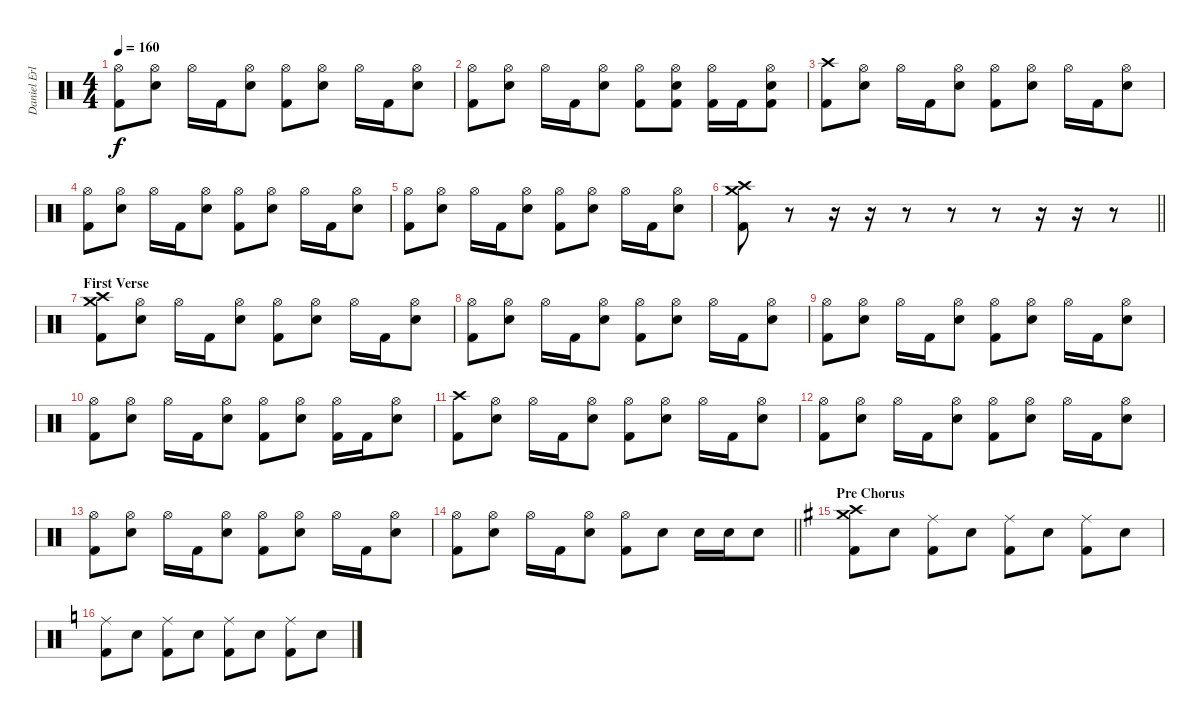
\track ("Daniel Erlandsson" "Daniel Erl") {instrument percussion}
\staff {score}
\articulation defaults
\ts (4 4)
\tempo 160
\clef neutral
\ks c
("Hi-Hat (open)" "Kick (hit) 2").8{dy f} ("Hi-Hat (open)" "Electric Snare (hit)").8 "Hi-Hat (open)".16 "Kick (hit) 2".16 ("Hi-Hat (open)" "Electric Snare (hit)").8 ("Hi-Hat (open)" "Kick (hit) 2").8 ("Hi-Hat (open)" "Electric Snare (hit)").8 "Hi-Hat (open)".16 "Kick (hit) 2".16 ("Hi-Hat (open)" "Electric Snare (hit)").8 |
("Hi-Hat (open)" "Kick (hit) 2").8 ("Hi-Hat (open)" "Electric Snare (hit)").8 "Hi-Hat (open)".16 "Kick (hit) 2".16 ("Hi-Hat (open)" "Electric Snare (hit)").8 ("Hi-Hat (open)" "Kick (hit) 2").8 ("Hi-Hat (open)" "Electric Snare (hit)" "Kick (hit) 2").8 ("Hi-Hat (open)" "Kick (hit) 2").16 "Kick (hit) 2".16 ("Hi-Hat (open)" "Electric Snare (hit)" "Kick (hit) 2").8 |
("Crash high (hit)" "Kick (hit) 2").8 ("Hi-Hat (open)" "Electric Snare (hit)").8 "Hi-Hat (open)".16 "Kick (hit) 2".16 ("Hi-Hat (open)" "Electric Snare (hit)").8 ("Hi-Hat (open)" "Kick (hit) 2").8 ("Hi-Hat (open)" "Electric Snare (hit)").8 "Hi-Hat (open)".16 "Kick (hit) 2".16 ("Hi-Hat (open)" "Electric Snare (hit)").8 |
("Hi-Hat (open)" "Kick (hit) 2").8 ("Hi-Hat (open)" "Electric Snare (hit)").8 "Hi-Hat (open)".16 "Kick (hit) 2".16 ("Hi-Hat (open)" "Electric Snare (hit)").8 ("Hi-Hat (open)" "Kick (hit) 2").8 ("Hi-Hat (open)" "Electric Snare (hit)").8 "Hi-Hat (open)".16 "Kick (hit) 2".16 ("Hi-Hat (open)" "Electric Snare (hit)").8 |
("Hi-Hat (open)" "Kick (hit) 2").8 ("Hi-Hat (open)" "Electric Snare (hit)").8 "Hi-Hat (open)".16 "Kick (hit) 2".16 ("Hi-Hat (open)" "Electric Snare (hit)").8 ("Hi-Hat (open)" "Kick (hit) 2").8 ("Hi-Hat (open)" "Electric Snare (hit)").8 "Hi-Hat (open)".16 "Kick (hit) 2".16 ("Hi-Hat (open)" "Electric Snare (hit)").8 |
\barLineRight lightlight
("Crash medium (hit)" "Crash high (hit)" "Kick (hit) 2").8 r.8 r.16 r.16 r.8 r.8 r.8 r.16 r.16 r.8 |
\section ("" "First Verse")
("Crash medium (hit)" "Crash high (hit)" "Kick (hit) 2").8 ("Hi-Hat (open)" "Electric Snare (hit)").8 "Hi-Hat (open)".16 "Kick (hit) 2".16 ("Hi-Hat (open)" "Electric Snare (hit)").8 ("Hi-Hat (open)" "Kick (hit) 2").8 ("Hi-Hat (open)" "Electric Snare (hit)").8 "Hi-Hat (open)".16 "Kick (hit) 2".16 ("Hi-Hat (open)" "Electric Snare (hit)").8 |
("Hi-Hat (open)" "Kick (hit) 2").8 ("Hi-Hat (open)" "Electric Snare (hit)").8 "Hi-Hat (open)".16 "Kick (hit) 2".16 ("Hi-Hat (open)" "Electric Snare (hit)").8 ("Hi-Hat (open)" "Kick (hit) 2").8 ("Hi-Hat (open)" "Electric Snare (hit)").8 "Hi-Hat (open)".16 "Kick (hit) 2".16 ("Hi-Hat (open)" "Electric Snare (hit)").8 |
("Hi-Hat (open)" "Kick (hit) 2").8 ("Hi-Hat (open)" "Electric Snare (hit)").8 "Hi-Hat (open)".16 "Kick (hit) 2".16 ("Hi-Hat (open)" "Electric Snare (hit)").8 ("Hi-Hat (open)" "Kick (hit) 2").8 ("Hi-Hat (open)" "Electric Snare (hit)").8 "Hi-Hat (open)".16 "Kick (hit) 2".16 ("Hi-Hat (open)" "Electric Snare (hit)").8 |
("Hi-Hat (open)" "Kick (hit) 2").8 ("Hi-Hat (open)" "Electric Snare (hit)").8 "Hi-Hat (open)".16 "Kick (hit) 2".16 ("Hi-Hat (open)" "Electric Snare (hit)").8 ("Hi-Hat (open)" "Kick (hit) 2").8 ("Hi-Hat (open)" "Electric Snare (hit)").8 ("Hi-Hat (open)" "Kick (hit) 2").16 "Kick (hit) 2".16 ("Hi-Hat (open)" "Electric Snare (hit)").8 |
("Crash high (hit)" "Kick (hit) 2").8 ("Hi-Hat (open)" "Electric Snare (hit)").8 "Hi-Hat (open)".16 "Kick (hit) 2".16 ("Hi-Hat (open)" "Electric Snare (hit)").8 ("Hi-Hat (open)" "Kick (hit) 2").8 ("Hi-Hat (open)" "Electric Snare (hit)").8 "Hi-Hat (open)".16 "Kick (hit) 2".16 ("Hi-Hat (open)" "Electric Snare (hit)").8 |
("Hi-Hat (open)" "Kick (hit) 2").8 ("Hi-Hat (open)" "Electric Snare (hit)").8 "Hi-Hat (open)".16 "Kick (hit) 2".16 ("Hi-Hat (open)" "Electric Snare (hit)").8 ("Hi-Hat (open)" "Kick (hit) 2").8 ("Hi-Hat (open)" "Electric Snare (hit)").8 "Hi-Hat (open)".16 "Kick (hit) 2".16 ("Hi-Hat (open)" "Electric Snare (hit)").8 |
("Hi-Hat (open)" "Kick (hit) 2").8 ("Hi-Hat (open)" "Electric Snare (hit)").8 "Hi-Hat (open)".16 "Kick (hit) 2".16 ("Hi-Hat (open)" "Electric Snare (hit)").8 ("Hi-Hat (open)" "Kick (hit) 2").8 ("Hi-Hat (open)" "Electric Snare (hit)").8 "Hi-Hat (open)".16 "Kick (hit) 2".16 ("Hi-Hat (open)" "Electric Snare (hit)").8 |
\barLineRight lightlight
("Hi-Hat (open)" "Kick (hit) 2").8 ("Hi-Hat (open)" "Electric Snare (hit)").8 "Hi-Hat (open)".16 "Kick (hit) 2".16 ("Hi-Hat (open)" "Electric Snare (hit)").8 ("Hi-Hat (open)" "Kick (hit) 2").8 "Electric Snare (hit)".8 "Electric Snare (hit)".16 "Electric Snare (hit)".16 "Electric Snare (hit)".8 |
\section ("" "Pre Chorus")
\ks g
("Crash medium (hit)" "Crash high (hit)" "Kick (hit) 2").8 "Electric Snare (hit)".8 ("Ride (middle)" "Kick (hit) 2").8 "Electric Snare (hit)".8 ("Ride (middle)" "Kick (hit) 2").8 "Electric Snare (hit)".8 ("Ride (middle)" "Kick (hit) 2").8 "Electric Snare (hit)".8 |
\ks c
("Ride (middle)" "Kick (hit) 2").8 "Electric Snare (hit)".8 ("Ride (middle)" "Kick (hit) 2").8 "Electric Snare (hit)".8 ("Ride (middle)" "Kick (hit) 2").8 "Electric Snare (hit)".8 ("Ride (middle)" "Kick (hit) 2").8 "Electric Snare (hit)".8
